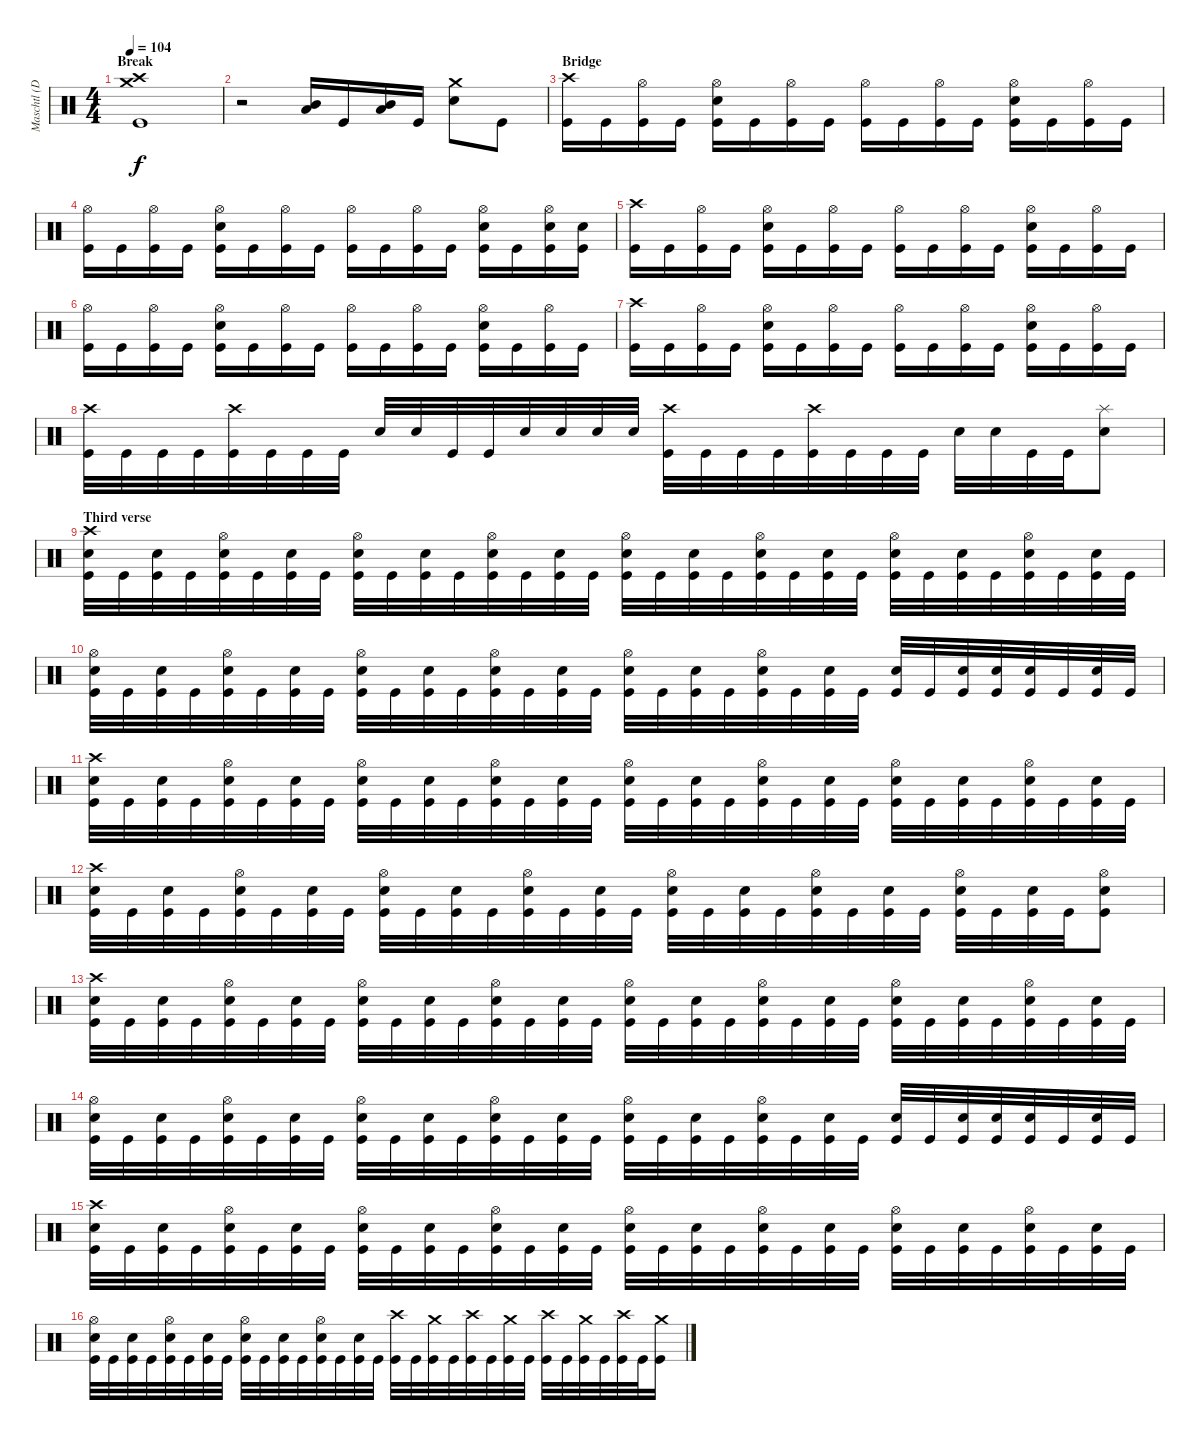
\track ("Maschtl (Drums)" "Maschtl (D") {instrument percussion}
\staff {score}
\articulation defaults
\ts (4 4)
\section ("" "Break")
\tempo 104
\clef neutral
\ks c
("Crash high (hit)" "Crash medium (hit)" "Kick (hit)").1{dy f} |
r.2 ("Mid Tom (hit)" "Low Tom (hit)").16{bu 120} "Kick (hit)".16 ("Mid Tom (hit)" "Low Tom (hit)").16{bu 120} "Kick (hit)".16 ("Crash medium (hit)" "Electric Snare (hit)").8 "Kick (hit)".8 |
\section ("" "Bridge")
("Crash high (hit)" "Kick (hit)").16 "Kick (hit)".16 ("Hi-Hat (open)" "Kick (hit)").16 "Kick (hit)".16 ("Hi-Hat (open)" "Electric Snare (hit)" "Kick (hit)").16 "Kick (hit)".16 ("Hi-Hat (open)" "Kick (hit)").16 "Kick (hit)".16 ("Hi-Hat (open)" "Kick (hit)").16 "Kick (hit)".16 ("Hi-Hat (open)" "Kick (hit)").16 "Kick (hit)".16 ("Hi-Hat (open)" "Electric Snare (hit)" "Kick (hit)").16 "Kick (hit)".16 ("Hi-Hat (open)" "Kick (hit)").16 "Kick (hit)".16 |
("Hi-Hat (open)" "Kick (hit)").16 "Kick (hit)".16 ("Hi-Hat (open)" "Kick (hit)").16 "Kick (hit)".16 ("Hi-Hat (open)" "Electric Snare (hit)" "Kick (hit)").16 "Kick (hit)".16 ("Hi-Hat (open)" "Kick (hit)").16 "Kick (hit)".16 ("Hi-Hat (open)" "Kick (hit)").16 "Kick (hit)".16 ("Hi-Hat (open)" "Kick (hit)").16 "Kick (hit)".16 ("Hi-Hat (open)" "Electric Snare (hit)" "Kick (hit)").16 "Kick (hit)".16 ("Hi-Hat (open)" "Electric Snare (hit)" "Kick (hit)").16 ("Electric Snare (hit)" "Kick (hit)").16 |
("Crash high (hit)" "Kick (hit)").16 "Kick (hit)".16 ("Hi-Hat (open)" "Kick (hit)").16 "Kick (hit)".16 ("Hi-Hat (open)" "Electric Snare (hit)" "Kick (hit)").16 "Kick (hit)".16 ("Hi-Hat (open)" "Kick (hit)").16 "Kick (hit)".16 ("Hi-Hat (open)" "Kick (hit)").16 "Kick (hit)".16 ("Hi-Hat (open)" "Kick (hit)").16 "Kick (hit)".16 ("Hi-Hat (open)" "Electric Snare (hit)" "Kick (hit)").16 "Kick (hit)".16 ("Hi-Hat (open)" "Kick (hit)").16 "Kick (hit)".16 |
("Hi-Hat (open)" "Kick (hit)").16 "Kick (hit)".16 ("Hi-Hat (open)" "Kick (hit)").16 "Kick (hit)".16 ("Hi-Hat (open)" "Electric Snare (hit)" "Kick (hit)").16 "Kick (hit)".16 ("Hi-Hat (open)" "Kick (hit)").16 "Kick (hit)".16 ("Hi-Hat (open)" "Kick (hit)").16 "Kick (hit)".16 ("Hi-Hat (open)" "Kick (hit)").16 "Kick (hit)".16 ("Hi-Hat (open)" "Electric Snare (hit)" "Kick (hit)").16 "Kick (hit)".16 ("Hi-Hat (open)" "Kick (hit)").16 "Kick (hit)".16 |
("Crash high (hit)" "Kick (hit)").16 "Kick (hit)".16 ("Hi-Hat (open)" "Kick (hit)").16 "Kick (hit)".16 ("Hi-Hat (open)" "Electric Snare (hit)" "Kick (hit)").16 "Kick (hit)".16 ("Hi-Hat (open)" "Kick (hit)").16 "Kick (hit)".16 ("Hi-Hat (open)" "Kick (hit)").16 "Kick (hit)".16 ("Hi-Hat (open)" "Kick (hit)").16 "Kick (hit)".16 ("Hi-Hat (open)" "Electric Snare (hit)" "Kick (hit)").16 "Kick (hit)".16 ("Hi-Hat (open)" "Kick (hit)").16 "Kick (hit)".16 |
("Crash high (hit)" "Kick (hit)").32 "Kick (hit)".32 "Kick (hit)".32 "Kick (hit)".32 ("Crash high (hit)" "Kick (hit)").32 "Kick (hit)".32 "Kick (hit)".32 "Kick (hit)".32 "Electric Snare (hit)".32 "Electric Snare (hit)".32 "Kick (hit)".32 "Kick (hit)".32 "Electric Snare (hit)".32 "Electric Snare (hit)".32 "Electric Snare (hit)".32 "Electric Snare (hit)".32 ("Crash high (hit)" "Kick (hit)").32 "Kick (hit)".32 "Kick (hit)".32 "Kick (hit)".32 ("Crash high (hit)" "Kick (hit)").32 "Kick (hit)".32 "Kick (hit)".32 "Kick (hit)".32 "Electric Snare (hit)".32 "Electric Snare (hit)".32 "Kick (hit)".32 "Kick (hit)".32 ("Splash (hit)" "Electric Snare (hit)").8 |
\section ("" "Third verse")
("Crash high (hit)" "Electric Snare (hit)" "Kick (hit)").32 "Kick (hit)".32 ("Electric Snare (hit)" "Kick (hit)").32 "Kick (hit)".32 ("Hi-Hat (open)" "Electric Snare (hit)" "Kick (hit)").32 "Kick (hit)".32 ("Electric Snare (hit)" "Kick (hit)").32 "Kick (hit)".32 ("Hi-Hat (open)" "Electric Snare (hit)" "Kick (hit)").32 "Kick (hit)".32 ("Electric Snare (hit)" "Kick (hit)").32 "Kick (hit)".32 ("Hi-Hat (open)" "Electric Snare (hit)" "Kick (hit)").32 "Kick (hit)".32 ("Electric Snare (hit)" "Kick (hit)").32 "Kick (hit)".32 ("Hi-Hat (open)" "Electric Snare (hit)" "Kick (hit)").32 "Kick (hit)".32 ("Electric Snare (hit)" "Kick (hit)").32 "Kick (hit)".32 ("Hi-Hat (open)" "Electric Snare (hit)" "Kick (hit)").32 "Kick (hit)".32 ("Electric Snare (hit)" "Kick (hit)").32 "Kick (hit)".32 ("Hi-Hat (open)" "Electric Snare (hit)" "Kick (hit)").32 "Kick (hit)".32 ("Electric Snare (hit)" "Kick (hit)").32 "Kick (hit)".32 ("Hi-Hat (open)" "Electric Snare (hit)" "Kick (hit)").32 "Kick (hit)".32 ("Electric Snare (hit)" "Kick (hit)").32 "Kick (hit)".32 |
("Hi-Hat (open)" "Electric Snare (hit)" "Kick (hit)").32 "Kick (hit)".32 ("Electric Snare (hit)" "Kick (hit)").32 "Kick (hit)".32 ("Hi-Hat (open)" "Electric Snare (hit)" "Kick (hit)").32 "Kick (hit)".32 ("Electric Snare (hit)" "Kick (hit)").32 "Kick (hit)".32 ("Hi-Hat (open)" "Electric Snare (hit)" "Kick (hit)").32 "Kick (hit)".32 ("Electric Snare (hit)" "Kick (hit)").32 "Kick (hit)".32 ("Hi-Hat (open)" "Electric Snare (hit)" "Kick (hit)").32 "Kick (hit)".32 ("Electric Snare (hit)" "Kick (hit)").32 "Kick (hit)".32 ("Hi-Hat (open)" "Electric Snare (hit)" "Kick (hit)").32 "Kick (hit)".32 ("Electric Snare (hit)" "Kick (hit)").32 "Kick (hit)".32 ("Hi-Hat (open)" "Electric Snare (hit)" "Kick (hit)").32 "Kick (hit)".32 ("Electric Snare (hit)" "Kick (hit)").32 "Kick (hit)".32 ("Electric Snare (hit)" "Kick (hit)").32 "Kick (hit)".32 ("Electric Snare (hit)" "Kick (hit)").32 ("Electric Snare (hit)" "Kick (hit)").32 ("Electric Snare (hit)" "Kick (hit)").32 "Kick (hit)".32 ("Electric Snare (hit)" "Kick (hit)").32 "Kick (hit)".32 |
("Crash high (hit)" "Electric Snare (hit)" "Kick (hit)").32 "Kick (hit)".32 ("Electric Snare (hit)" "Kick (hit)").32 "Kick (hit)".32 ("Hi-Hat (open)" "Electric Snare (hit)" "Kick (hit)").32 "Kick (hit)".32 ("Electric Snare (hit)" "Kick (hit)").32 "Kick (hit)".32 ("Hi-Hat (open)" "Electric Snare (hit)" "Kick (hit)").32 "Kick (hit)".32 ("Electric Snare (hit)" "Kick (hit)").32 "Kick (hit)".32 ("Hi-Hat (open)" "Electric Snare (hit)" "Kick (hit)").32 "Kick (hit)".32 ("Electric Snare (hit)" "Kick (hit)").32 "Kick (hit)".32 ("Hi-Hat (open)" "Electric Snare (hit)" "Kick (hit)").32 "Kick (hit)".32 ("Electric Snare (hit)" "Kick (hit)").32 "Kick (hit)".32 ("Hi-Hat (open)" "Electric Snare (hit)" "Kick (hit)").32 "Kick (hit)".32 ("Electric Snare (hit)" "Kick (hit)").32 "Kick (hit)".32 ("Hi-Hat (open)" "Electric Snare (hit)" "Kick (hit)").32 "Kick (hit)".32 ("Electric Snare (hit)" "Kick (hit)").32 "Kick (hit)".32 ("Hi-Hat (open)" "Electric Snare (hit)" "Kick (hit)").32 "Kick (hit)".32 ("Electric Snare (hit)" "Kick (hit)").32 "Kick (hit)".32 |
("Crash high (hit)" "Electric Snare (hit)" "Kick (hit)").32 "Kick (hit)".32 ("Electric Snare (hit)" "Kick (hit)").32 "Kick (hit)".32 ("Hi-Hat (open)" "Electric Snare (hit)" "Kick (hit)").32 "Kick (hit)".32 ("Electric Snare (hit)" "Kick (hit)").32 "Kick (hit)".32 ("Hi-Hat (open)" "Electric Snare (hit)" "Kick (hit)").32 "Kick (hit)".32 ("Electric Snare (hit)" "Kick (hit)").32 "Kick (hit)".32 ("Hi-Hat (open)" "Electric Snare (hit)" "Kick (hit)").32 "Kick (hit)".32 ("Electric Snare (hit)" "Kick (hit)").32 "Kick (hit)".32 ("Hi-Hat (open)" "Electric Snare (hit)" "Kick (hit)").32 "Kick (hit)".32 ("Electric Snare (hit)" "Kick (hit)").32 "Kick (hit)".32 ("Hi-Hat (open)" "Electric Snare (hit)" "Kick (hit)").32 "Kick (hit)".32 ("Electric Snare (hit)" "Kick (hit)").32 "Kick (hit)".32 ("Hi-Hat (open)" "Electric Snare (hit)" "Kick (hit)").32 "Kick (hit)".32 ("Electric Snare (hit)" "Kick (hit)").32 "Kick (hit)".32 ("Hi-Hat (open)" "Electric Snare (hit)" "Kick (hit)").8 |
("Crash high (hit)" "Electric Snare (hit)" "Kick (hit)").32 "Kick (hit)".32 ("Electric Snare (hit)" "Kick (hit)").32 "Kick (hit)".32 ("Hi-Hat (open)" "Electric Snare (hit)" "Kick (hit)").32 "Kick (hit)".32 ("Electric Snare (hit)" "Kick (hit)").32 "Kick (hit)".32 ("Hi-Hat (open)" "Electric Snare (hit)" "Kick (hit)").32 "Kick (hit)".32 ("Electric Snare (hit)" "Kick (hit)").32 "Kick (hit)".32 ("Hi-Hat (open)" "Electric Snare (hit)" "Kick (hit)").32 "Kick (hit)".32 ("Electric Snare (hit)" "Kick (hit)").32 "Kick (hit)".32 ("Hi-Hat (open)" "Electric Snare (hit)" "Kick (hit)").32 "Kick (hit)".32 ("Electric Snare (hit)" "Kick (hit)").32 "Kick (hit)".32 ("Hi-Hat (open)" "Electric Snare (hit)" "Kick (hit)").32 "Kick (hit)".32 ("Electric Snare (hit)" "Kick (hit)").32 "Kick (hit)".32 ("Hi-Hat (open)" "Electric Snare (hit)" "Kick (hit)").32 "Kick (hit)".32 ("Electric Snare (hit)" "Kick (hit)").32 "Kick (hit)".32 ("Hi-Hat (open)" "Electric Snare (hit)" "Kick (hit)").32 "Kick (hit)".32 ("Electric Snare (hit)" "Kick (hit)").32 "Kick (hit)".32 |
("Hi-Hat (open)" "Electric Snare (hit)" "Kick (hit)").32 "Kick (hit)".32 ("Electric Snare (hit)" "Kick (hit)").32 "Kick (hit)".32 ("Hi-Hat (open)" "Electric Snare (hit)" "Kick (hit)").32 "Kick (hit)".32 ("Electric Snare (hit)" "Kick (hit)").32 "Kick (hit)".32 ("Hi-Hat (open)" "Electric Snare (hit)" "Kick (hit)").32 "Kick (hit)".32 ("Electric Snare (hit)" "Kick (hit)").32 "Kick (hit)".32 ("Hi-Hat (open)" "Electric Snare (hit)" "Kick (hit)").32 "Kick (hit)".32 ("Electric Snare (hit)" "Kick (hit)").32 "Kick (hit)".32 ("Hi-Hat (open)" "Electric Snare (hit)" "Kick (hit)").32 "Kick (hit)".32 ("Electric Snare (hit)" "Kick (hit)").32 "Kick (hit)".32 ("Hi-Hat (open)" "Electric Snare (hit)" "Kick (hit)").32 "Kick (hit)".32 ("Electric Snare (hit)" "Kick (hit)").32 "Kick (hit)".32 ("Electric Snare (hit)" "Kick (hit)").32 "Kick (hit)".32 ("Electric Snare (hit)" "Kick (hit)").32 ("Electric Snare (hit)" "Kick (hit)").32 ("Electric Snare (hit)" "Kick (hit)").32 "Kick (hit)".32 ("Electric Snare (hit)" "Kick (hit)").32 "Kick (hit)".32 |
("Crash high (hit)" "Electric Snare (hit)" "Kick (hit)").32 "Kick (hit)".32 ("Electric Snare (hit)" "Kick (hit)").32 "Kick (hit)".32 ("Hi-Hat (open)" "Electric Snare (hit)" "Kick (hit)").32 "Kick (hit)".32 ("Electric Snare (hit)" "Kick (hit)").32 "Kick (hit)".32 ("Hi-Hat (open)" "Electric Snare (hit)" "Kick (hit)").32 "Kick (hit)".32 ("Electric Snare (hit)" "Kick (hit)").32 "Kick (hit)".32 ("Hi-Hat (open)" "Electric Snare (hit)" "Kick (hit)").32 "Kick (hit)".32 ("Electric Snare (hit)" "Kick (hit)").32 "Kick (hit)".32 ("Hi-Hat (open)" "Electric Snare (hit)" "Kick (hit)").32 "Kick (hit)".32 ("Electric Snare (hit)" "Kick (hit)").32 "Kick (hit)".32 ("Hi-Hat (open)" "Electric Snare (hit)" "Kick (hit)").32 "Kick (hit)".32 ("Electric Snare (hit)" "Kick (hit)").32 "Kick (hit)".32 ("Hi-Hat (open)" "Electric Snare (hit)" "Kick (hit)").32 "Kick (hit)".32 ("Electric Snare (hit)" "Kick (hit)").32 "Kick (hit)".32 ("Hi-Hat (open)" "Electric Snare (hit)" "Kick (hit)").32 "Kick (hit)".32 ("Electric Snare (hit)" "Kick (hit)").32 "Kick (hit)".32 |
("Hi-Hat (open)" "Electric Snare (hit)" "Kick (hit)").32 "Kick (hit)".32 ("Electric Snare (hit)" "Kick (hit)").32 "Kick (hit)".32 ("Hi-Hat (open)" "Electric Snare (hit)" "Kick (hit)").32 "Kick (hit)".32 ("Electric Snare (hit)" "Kick (hit)").32 "Kick (hit)".32 ("Hi-Hat (open)" "Electric Snare (hit)" "Kick (hit)").32 "Kick (hit)".32 ("Electric Snare (hit)" "Kick (hit)").32 "Kick (hit)".32 ("Hi-Hat (open)" "Electric Snare (hit)" "Kick (hit)").32 "Kick (hit)".32 ("Electric Snare (hit)" "Kick (hit)").32 "Kick (hit)".32 ("Crash high (hit)" "Kick (hit)").32 "Kick (hit)".32 ("Crash medium (hit)" "Kick (hit)").32 "Kick (hit)".32 ("Crash high (hit)" "Kick (hit)").32 "Kick (hit)".32 ("Crash medium (hit)" "Kick (hit)").32 "Kick (hit)".32 ("Crash high (hit)" "Kick (hit)").32 "Kick (hit)".32 ("Crash medium (hit)" "Kick (hit)").32 "Kick (hit)".32 ("Crash high (hit)" "Kick (hit)").32 "Kick (hit)".32 ("Crash medium (hit)" "Kick (hit)").16
